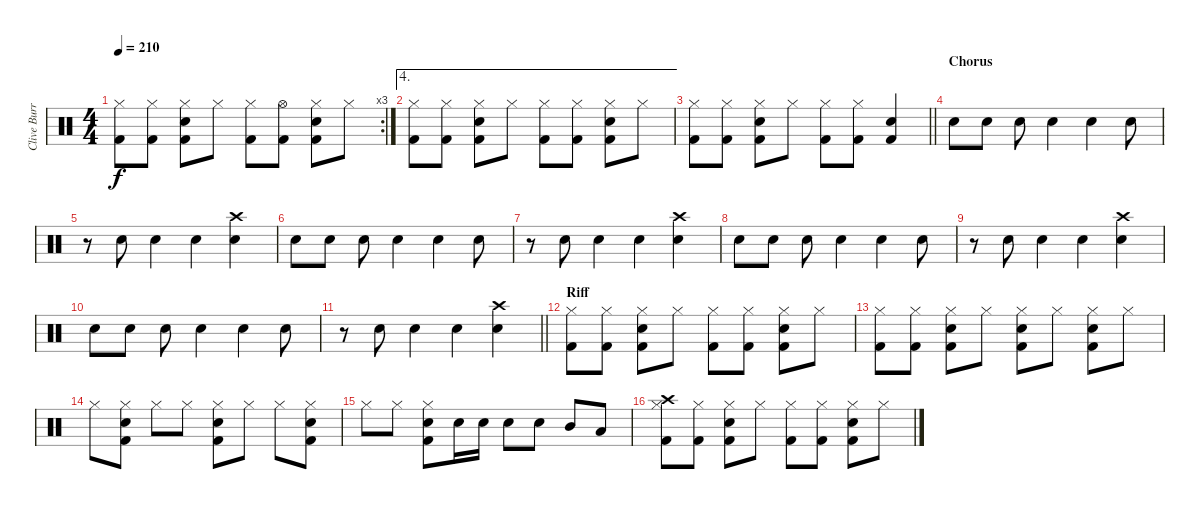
\track ("Clive Burr" "Clive Burr") {instrument percussion}
\staff {score}
\articulation defaults
\rc 3
\ts (4 4)
\tempo 210
\clef neutral
\ks c
("Hi-Hat (closed)" "Kick (hit) 2").8{dy f} ("Hi-Hat (closed)" "Kick (hit) 2").8 ("Snare (hit) 2" "Hi-Hat (closed)" "Kick (hit) 2").8 "Hi-Hat (closed)".8 ("Hi-Hat (closed)" "Kick (hit) 2").8 ("Hi-Hat (open)" "Kick (hit) 2").8 ("Snare (hit) 2" "Hi-Hat (closed)" "Kick (hit) 2").8 "Hi-Hat (closed)".8 |
\ae 4
("Hi-Hat (closed)" "Kick (hit) 2").8 ("Hi-Hat (closed)" "Kick (hit) 2").8 ("Snare (hit) 2" "Hi-Hat (closed)" "Kick (hit) 2").8 "Hi-Hat (closed)".8 ("Hi-Hat (closed)" "Kick (hit) 2").8 ("Hi-Hat (closed)" "Kick (hit) 2").8 ("Snare (hit) 2" "Hi-Hat (closed)" "Kick (hit) 2").8 "Hi-Hat (closed)".8 |
\barLineRight lightlight
("Hi-Hat (closed)" "Kick (hit) 2").8 ("Hi-Hat (closed)" "Kick (hit) 2").8 ("Snare (hit) 2" "Hi-Hat (closed)" "Kick (hit) 2").8 "Hi-Hat (closed)".8 ("Hi-Hat (closed)" "Kick (hit) 2").8 ("Hi-Hat (closed)" "Kick (hit) 2").8 ("Snare (hit) 2" "Kick (hit) 2").4 |
\section ("" "Chorus")
"Snare (hit) 2".8 "Snare (hit) 2".8 "Snare (hit) 2".8 "Snare (hit) 2".4 "Snare (hit) 2".4 "Snare (hit) 2".8 |
r.8 "Snare (hit) 2".8 "Snare (hit) 2".4 "Snare (hit) 2".4 ("Crash high (hit)" "Snare (hit) 2").4 |
"Snare (hit) 2".8 "Snare (hit) 2".8 "Snare (hit) 2".8 "Snare (hit) 2".4 "Snare (hit) 2".4 "Snare (hit) 2".8 |
r.8 "Snare (hit) 2".8 "Snare (hit) 2".4 "Snare (hit) 2".4 ("Crash high (hit)" "Snare (hit) 2").4 |
"Snare (hit) 2".8 "Snare (hit) 2".8 "Snare (hit) 2".8 "Snare (hit) 2".4 "Snare (hit) 2".4 "Snare (hit) 2".8 |
r.8 "Snare (hit) 2".8 "Snare (hit) 2".4 "Snare (hit) 2".4 ("Crash high (hit)" "Snare (hit) 2").4 |
"Snare (hit) 2".8 "Snare (hit) 2".8 "Snare (hit) 2".8 "Snare (hit) 2".4 "Snare (hit) 2".4 "Snare (hit) 2".8 |
\barLineRight lightlight
r.8 "Snare (hit) 2".8 "Snare (hit) 2".4 "Snare (hit) 2".4 ("Crash high (hit)" "Snare (hit) 2").4 |
\section ("" "Riff")
("Hi-Hat (closed)" "Kick (hit) 2").8 ("Hi-Hat (closed)" "Kick (hit) 2").8 ("Snare (hit) 2" "Hi-Hat (closed)" "Kick (hit) 2").8 "Hi-Hat (closed)".8 ("Hi-Hat (closed)" "Kick (hit) 2").8 ("Hi-Hat (closed)" "Kick (hit) 2").8 ("Snare (hit) 2" "Hi-Hat (closed)" "Kick (hit) 2").8 "Hi-Hat (closed)".8 |
("Hi-Hat (closed)" "Kick (hit) 2").8 ("Hi-Hat (closed)" "Kick (hit) 2").8 ("Snare (hit) 2" "Hi-Hat (closed)" "Kick (hit) 2").8 "Hi-Hat (closed)".8 ("Snare (hit) 2" "Hi-Hat (closed)" "Kick (hit) 2").8 "Hi-Hat (closed)".8 ("Snare (hit) 2" "Hi-Hat (closed)" "Kick (hit) 2").8 "Hi-Hat (closed)".8 |
"Hi-Hat (closed)".8 ("Snare (hit) 2" "Hi-Hat (closed)" "Kick (hit) 2").8 "Hi-Hat (closed)".8 "Hi-Hat (closed)".8 ("Snare (hit) 2" "Hi-Hat (closed)" "Kick (hit) 2").8 "Hi-Hat (closed)".8 "Hi-Hat (closed)".8 ("Snare (hit) 2" "Hi-Hat (closed)" "Kick (hit) 2").8 |
"Hi-Hat (closed)".8 "Hi-Hat (closed)".8 ("Snare (hit) 2" "Hi-Hat (closed)" "Kick (hit) 2").8 "Snare (hit) 2".16 "Snare (hit) 2".16 "Snare (hit) 2".8 "Snare (hit) 2".8 "Mid Tom (hit)".8 "Low Tom (hit)".8 |
("Crash high (hit)" "Hi-Hat (closed)" "Kick (hit) 2").8 ("Hi-Hat (closed)" "Kick (hit) 2").8 ("Snare (hit) 2" "Hi-Hat (closed)" "Kick (hit) 2").8 "Hi-Hat (closed)".8 ("Hi-Hat (closed)" "Kick (hit) 2").8 ("Hi-Hat (closed)" "Kick (hit) 2").8 ("Snare (hit) 2" "Hi-Hat (closed)" "Kick (hit) 2").8 "Hi-Hat (closed)".8
